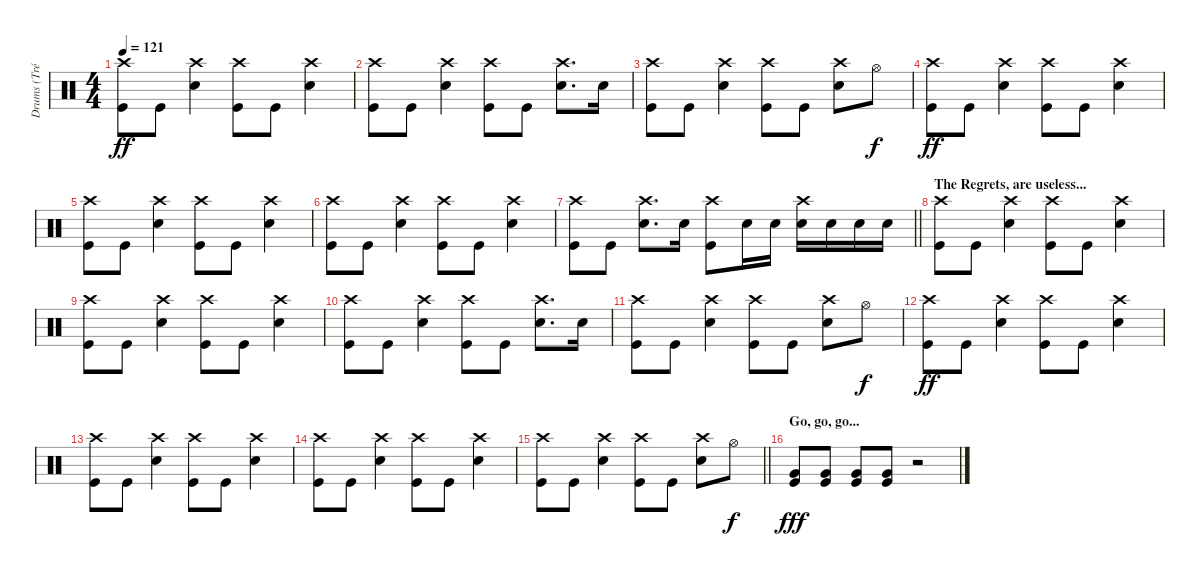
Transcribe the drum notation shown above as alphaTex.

\track ("Drums (Tré)" "Drums (Tré") {instrument percussion}
\staff {score}
\articulation defaults
\ts (4 4)
\tempo 121
\clef neutral
\ks c
("Crash high (hit)" "Kick (hit)").8{dy ff} "Kick (hit)".8 ("Crash high (hit)" "Snare (hit) 2").4 ("Crash high (hit)" "Kick (hit)").8 "Kick (hit)".8 ("Crash high (hit)" "Snare (hit) 2").4 |
("Crash high (hit)" "Kick (hit)").8 "Kick (hit)".8 ("Crash high (hit)" "Snare (hit) 2").4 ("Crash high (hit)" "Kick (hit)").8 "Kick (hit)".8 ("Crash high (hit)" "Snare (hit) 2").8{d} "Snare (hit) 2".16 |
("Crash high (hit)" "Kick (hit)").8 "Kick (hit)".8 ("Crash high (hit)" "Snare (hit) 2").4 ("Crash high (hit)" "Kick (hit)").8 "Kick (hit)".8 ("Crash high (hit)" "Snare (hit) 2").8 "Hi-Hat (open)".8{dy f} |
("Crash high (hit)" "Kick (hit)").8{dy ff} "Kick (hit)".8 ("Crash high (hit)" "Snare (hit) 2").4 ("Crash high (hit)" "Kick (hit)").8 "Kick (hit)".8 ("Crash high (hit)" "Snare (hit) 2").4 |
("Crash high (hit)" "Kick (hit)").8 "Kick (hit)".8 ("Crash high (hit)" "Snare (hit) 2").4 ("Crash high (hit)" "Kick (hit)").8 "Kick (hit)".8 ("Crash high (hit)" "Snare (hit) 2").4 |
("Crash high (hit)" "Kick (hit)").8 "Kick (hit)".8 ("Crash high (hit)" "Snare (hit) 2").4 ("Crash high (hit)" "Kick (hit)").8 "Kick (hit)".8 ("Crash high (hit)" "Snare (hit) 2").4 |
\barLineRight lightlight
("Crash high (hit)" "Kick (hit)").8 "Kick (hit)".8 ("Crash high (hit)" "Snare (hit) 2").8{d} "Snare (hit) 2".16 ("Crash high (hit)" "Kick (hit)").8 "Snare (hit) 2".16 "Snare (hit) 2".16 ("Crash high (hit)" "Snare (hit) 2").16 "Snare (hit) 2".16 "Snare (hit) 2".16 "Snare (hit) 2".16 |
\section ("" "The Regrets, are useless...")
("Crash high (hit)" "Kick (hit)").8 "Kick (hit)".8 ("Crash high (hit)" "Snare (hit) 2").4 ("Crash high (hit)" "Kick (hit)").8 "Kick (hit)".8 ("Crash high (hit)" "Snare (hit) 2").4 |
("Crash high (hit)" "Kick (hit)").8 "Kick (hit)".8 ("Crash high (hit)" "Snare (hit) 2").4 ("Crash high (hit)" "Kick (hit)").8 "Kick (hit)".8 ("Crash high (hit)" "Snare (hit) 2").4 |
("Crash high (hit)" "Kick (hit)").8 "Kick (hit)".8 ("Crash high (hit)" "Snare (hit) 2").4 ("Crash high (hit)" "Kick (hit)").8 "Kick (hit)".8 ("Crash high (hit)" "Snare (hit) 2").8{d} "Snare (hit) 2".16 |
("Crash high (hit)" "Kick (hit)").8 "Kick (hit)".8 ("Crash high (hit)" "Snare (hit) 2").4 ("Crash high (hit)" "Kick (hit)").8 "Kick (hit)".8 ("Crash high (hit)" "Snare (hit) 2").8 "Hi-Hat (open)".8{dy f} |
("Crash high (hit)" "Kick (hit)").8{dy ff} "Kick (hit)".8 ("Crash high (hit)" "Snare (hit) 2").4 ("Crash high (hit)" "Kick (hit)").8 "Kick (hit)".8 ("Crash high (hit)" "Snare (hit) 2").4 |
("Crash high (hit)" "Kick (hit)").8 "Kick (hit)".8 ("Crash high (hit)" "Snare (hit) 2").4 ("Crash high (hit)" "Kick (hit)").8 "Kick (hit)".8 ("Crash high (hit)" "Snare (hit) 2").4 |
("Crash high (hit)" "Kick (hit)").8 "Kick (hit)".8 ("Crash high (hit)" "Snare (hit) 2").4 ("Crash high (hit)" "Kick (hit)").8 "Kick (hit)".8 ("Crash high (hit)" "Snare (hit) 2").4 |
\barLineRight lightlight
("Crash high (hit)" "Kick (hit)").8 "Kick (hit)".8 ("Crash high (hit)" "Snare (hit) 2").4 ("Crash high (hit)" "Kick (hit)").8 "Kick (hit)".8 ("Crash high (hit)" "Snare (hit) 2").8 "Hi-Hat (open)".8{dy f} |
\section ("" "Go, go, go...")
("Very Low Tom (hit)" "Kick (hit)").8{dy fff} ("Very Low Tom (hit)" "Kick (hit)").8 ("Very Low Tom (hit)" "Kick (hit)").8 ("Very Low Tom (hit)" "Kick (hit)").8 r.2
